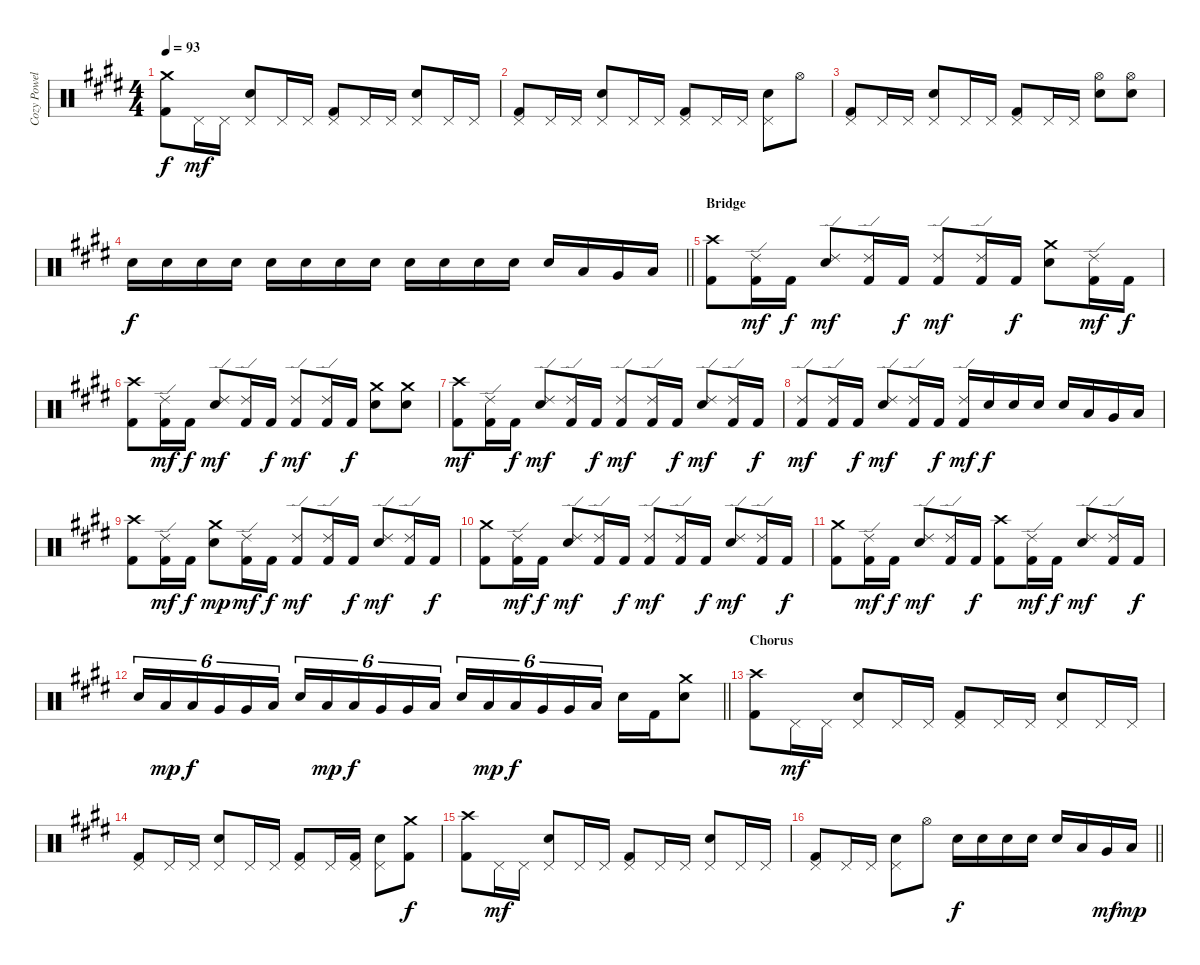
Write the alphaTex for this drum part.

\track ("Cozy Powell" "Cozy Powel") {instrument percussion}
\staff {score}
\articulation defaults
\ts (4 4)
\tempo 93
\clef neutral
\ks c#minor
("Kick (hit) 2" "Crash medium (hit)").8{dy f} "Pedal Hi-Hat (hit)".16{dy mf} "Pedal Hi-Hat (hit)".16 ("Pedal Hi-Hat (hit)" "Snare (hit) 2").8 "Pedal Hi-Hat (hit)".16 "Pedal Hi-Hat (hit)".16 ("Kick (hit) 2" "Pedal Hi-Hat (hit)").8 "Pedal Hi-Hat (hit)".16 "Pedal Hi-Hat (hit)".16 ("Pedal Hi-Hat (hit)" "Snare (hit) 2").8 "Pedal Hi-Hat (hit)".16 "Pedal Hi-Hat (hit)".16 |
("Kick (hit) 2" "Pedal Hi-Hat (hit)").8 "Pedal Hi-Hat (hit)".16 "Pedal Hi-Hat (hit)".16 ("Pedal Hi-Hat (hit)" "Snare (hit) 2").8 "Pedal Hi-Hat (hit)".16 "Pedal Hi-Hat (hit)".16 ("Kick (hit) 2" "Pedal Hi-Hat (hit)").8 "Pedal Hi-Hat (hit)".16 "Pedal Hi-Hat (hit)".16 ("Pedal Hi-Hat (hit)" "Snare (hit) 2").8 "Hi-Hat (open)".8 |
("Kick (hit) 2" "Pedal Hi-Hat (hit)").8 "Pedal Hi-Hat (hit)".16 "Pedal Hi-Hat (hit)".16 ("Pedal Hi-Hat (hit)" "Snare (hit) 2").8 "Pedal Hi-Hat (hit)".16 "Pedal Hi-Hat (hit)".16 ("Kick (hit) 2" "Pedal Hi-Hat (hit)").8 "Pedal Hi-Hat (hit)".16 "Pedal Hi-Hat (hit)".16 ("Hi-Hat (open)" "Snare (hit) 2").8 ("Hi-Hat (open)" "Snare (hit) 2").8 |
\barLineRight lightlight "Snare (hit) 2".16{dy f} "Snare (hit) 2".16 "Snare (hit) 2".16 "Snare (hit) 2".16 "Snare (hit) 2".16 "Snare (hit) 2".16 "Snare (hit) 2".16 "Snare (hit) 2".16 "Snare (hit) 2".16 "Snare (hit) 2".16 "Snare (hit) 2".16 "Snare (hit) 2".16 "Snare (hit) 2".16 "Low Tom (hit)".16 "Very Low Tom (hit)".16 "Low Floor Tom (hit)".16
|
\section ("" "Bridge")
("Kick (hit) 2" "Crash high (hit)").8 ("Kick (hit) 2" "Ride (edge) 2").16{dy mf} "Kick (hit) 2".16{dy f} ("Ride (edge) 2" "Snare (hit) 2").8{dy mf} ("Kick (hit) 2" "Ride (edge) 2").16 "Kick (hit) 2".16{dy f} ("Kick (hit) 2" "Ride (edge) 2").8{dy mf} ("Kick (hit) 2" "Ride (edge) 2").16 "Kick (hit) 2".16{dy f} ("Crash medium (hit)" "Snare (hit) 2").8 ("Kick (hit) 2" "Ride (edge) 2").16{dy mf} "Kick (hit) 2".16{dy f} |
("Kick (hit) 2" "Crash high (hit)").8 ("Kick (hit) 2" "Ride (edge) 2").16{dy mf} "Kick (hit) 2".16{dy f} ("Ride (edge) 2" "Snare (hit) 2").8{dy mf} ("Kick (hit) 2" "Ride (edge) 2").16 "Kick (hit) 2".16{dy f} ("Kick (hit) 2" "Ride (edge) 2").8{dy mf} ("Kick (hit) 2" "Ride (edge) 2").16 "Kick (hit) 2".16{dy f} ("Crash medium (hit)" "Snare (hit) 2").8 ("Crash medium (hit)" "Snare (hit) 2").8 |
("Kick (hit) 2" "Crash high (hit)").8{dy mf} ("Kick (hit) 2" "Ride (edge) 2").16 "Kick (hit) 2".16{dy f} ("Ride (edge) 2" "Snare (hit) 2").8{dy mf} ("Kick (hit) 2" "Ride (edge) 2").16 "Kick (hit) 2".16{dy f} ("Kick (hit) 2" "Ride (edge) 2").8{dy mf} ("Kick (hit) 2" "Ride (edge) 2").16 "Kick (hit) 2".16{dy f} ("Ride (edge) 2" "Snare (hit) 2").8{dy mf} ("Kick (hit) 2" "Ride (edge) 2").16 "Kick (hit) 2".16{dy f} |
("Kick (hit) 2" "Ride (edge) 2").8{dy mf} ("Kick (hit) 2" "Ride (edge) 2").16 "Kick (hit) 2".16{dy f} ("Ride (edge) 2" "Snare (hit) 2").8{dy mf} ("Kick (hit) 2" "Ride (edge) 2").16 "Kick (hit) 2".16{dy f} ("Kick (hit) 2" "Ride (edge) 2").16{dy mf} "Snare (hit) 2".16{dy f} "Snare (hit) 2".16 "Snare (hit) 2".16 "Snare (hit) 2".16 "Low Tom (hit)".16 "Very Low Tom (hit)".16 "Low Floor Tom (hit)".16 |
("Kick (hit) 2" "Crash high (hit)").8 ("Kick (hit) 2" "Ride (edge) 2").16{dy mf} "Kick (hit) 2".16{dy f} ("Crash medium (hit)" "Snare (hit) 2").8{dy mp} ("Kick (hit) 2" "Ride (edge) 2").16{dy mf} "Kick (hit) 2".16{dy f} ("Kick (hit) 2" "Ride (edge) 2").8{dy mf} ("Kick (hit) 2" "Ride (edge) 2").16 "Kick (hit) 2".16{dy f} ("Ride (edge) 2" "Snare (hit) 2").8{dy mf} ("Kick (hit) 2" "Ride (edge) 2").16 "Kick (hit) 2".16{dy f} |
("Kick (hit) 2" "Crash medium (hit)").8 ("Kick (hit) 2" "Ride (edge) 2").16{dy mf} "Kick (hit) 2".16{dy f} ("Ride (edge) 2" "Snare (hit) 2").8{dy mf} ("Kick (hit) 2" "Ride (edge) 2").16 "Kick (hit) 2".16{dy f} ("Kick (hit) 2" "Ride (edge) 2").8{dy mf} ("Kick (hit) 2" "Ride (edge) 2").16 "Kick (hit) 2".16{dy f} ("Ride (edge) 2" "Snare (hit) 2").8{dy mf} ("Kick (hit) 2" "Ride (edge) 2").16 "Kick (hit) 2".16{dy f} |
("Kick (hit) 2" "Crash medium (hit)").8 ("Kick (hit) 2" "Ride (edge) 2").16{dy mf} "Kick (hit) 2".16{dy f} ("Ride (edge) 2" "Snare (hit) 2").8{dy mf} ("Kick (hit) 2" "Ride (edge) 2").16 "Kick (hit) 2".16{dy f} ("Kick (hit) 2" "Crash high (hit)").8 ("Kick (hit) 2" "Ride (edge) 2").16{dy mf} "Kick (hit) 2".16{dy f} ("Ride (edge) 2" "Snare (hit) 2").8{dy mf} ("Kick (hit) 2" "Ride (edge) 2").16 "Kick (hit) 2".16{dy f} |
\barLineRight lightlight "Snare (hit) 2".16{tu (6 4)} "Low Tom (hit)".16{tu (6 4) dy mp} "Low Tom (hit)".16{tu (6 4) dy f} "Very Low Tom (hit)".16{tu (6 4)} "Very Low Tom (hit)".16{tu (6 4)} "Low Floor Tom (hit)".16{tu (6 4)} "Snare (hit) 2".16{tu (6 4)} "Low Tom (hit)".16{tu (6 4) dy mp} "Low Tom (hit)".16{tu (6 4) dy f} "Very Low Tom (hit)".16{tu (6 4)} "Very Low Tom (hit)".16{tu (6 4)} "Low Floor Tom (hit)".16{tu (6 4)} "Snare (hit) 2".16{tu (6 4)} "Low Tom (hit)".16{tu (6 4) dy mp} "Low Tom (hit)".16{tu (6 4) dy f} "Very Low Tom (hit)".16{tu (6 4)} "Very Low Tom (hit)".16{tu (6 4)} "Low Floor Tom (hit)".16{tu (6 4)} "Snare (hit) 2".16 "Kick (hit) 2".16
("Crash medium (hit)" "Snare (hit) 2").8 |
\section ("" "Chorus")
("Kick (hit) 2" "Crash high (hit)").8 "Pedal Hi-Hat (hit)".16{dy mf} "Pedal Hi-Hat (hit)".16 ("Pedal Hi-Hat (hit)" "Snare (hit) 2").8 "Pedal Hi-Hat (hit)".16 "Pedal Hi-Hat (hit)".16 ("Kick (hit) 2" "Pedal Hi-Hat (hit)").8 "Pedal Hi-Hat (hit)".16 "Pedal Hi-Hat (hit)".16 ("Pedal Hi-Hat (hit)" "Snare (hit) 2").8 "Pedal Hi-Hat (hit)".16 "Pedal Hi-Hat (hit)".16 |
("Kick (hit) 2" "Pedal Hi-Hat (hit)").8 "Pedal Hi-Hat (hit)".16 "Pedal Hi-Hat (hit)".16 ("Pedal Hi-Hat (hit)" "Snare (hit) 2").8 "Pedal Hi-Hat (hit)".16 "Pedal Hi-Hat (hit)".16 ("Kick (hit) 2" "Pedal Hi-Hat (hit)").8 "Pedal Hi-Hat (hit)".16 ("Kick (hit) 2" "Pedal Hi-Hat (hit)").16 ("Pedal Hi-Hat (hit)" "Snare (hit) 2").8 ("Kick (hit) 2" "Crash medium (hit)").8{dy f} |
("Kick (hit) 2" "Crash high (hit)").8 "Pedal Hi-Hat (hit)".16{dy mf} "Pedal Hi-Hat (hit)".16 ("Pedal Hi-Hat (hit)" "Snare (hit) 2").8 "Pedal Hi-Hat (hit)".16 "Pedal Hi-Hat (hit)".16 ("Kick (hit) 2" "Pedal Hi-Hat (hit)").8 "Pedal Hi-Hat (hit)".16 "Pedal Hi-Hat (hit)".16 ("Pedal Hi-Hat (hit)" "Snare (hit) 2").8 "Pedal Hi-Hat (hit)".16 "Pedal Hi-Hat (hit)".16 |
\barLineRight lightlight
("Kick (hit) 2" "Pedal Hi-Hat (hit)").8 "Pedal Hi-Hat (hit)".16 "Pedal Hi-Hat (hit)".16 ("Pedal Hi-Hat (hit)" "Snare (hit) 2").8 "Hi-Hat (open)".8 "Snare (hit) 2".16{dy f} "Snare (hit) 2".16 "Snare (hit) 2".16 "Snare (hit) 2".16 "Snare (hit) 2".16 "Low Tom (hit)".16 "Very Low Tom (hit)".16{dy mf} "Low Floor Tom (hit)".16{dy mp}
